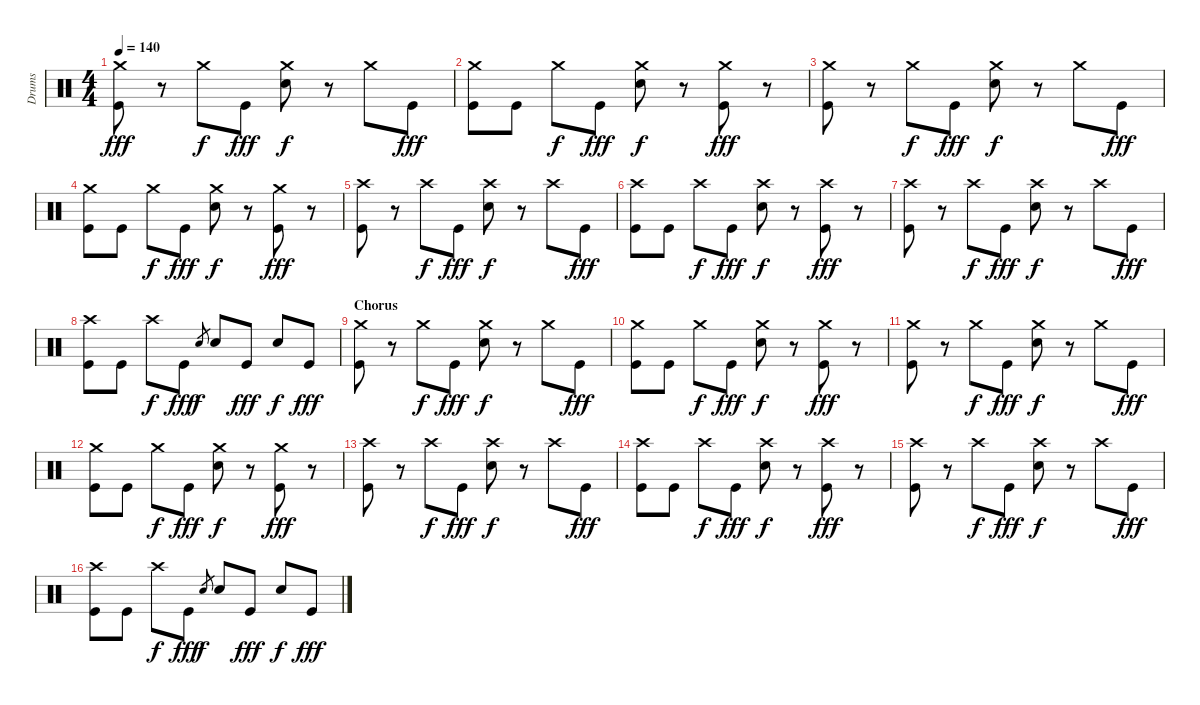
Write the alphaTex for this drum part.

\track ("Drums" "Drums") {instrument percussion}
\staff {score}
\articulation defaults
\ts (4 4)
\tempo 140
\clef neutral
\ks c
("Crash medium (hit)" "Kick (hit)").8{dy fff} r.8 "Crash medium (hit)".8{dy f} "Kick (hit)".8{dy fff} ("Crash medium (hit)" "Electric Snare (hit)").8{dy f} r.8 "Crash medium (hit)".8 "Kick (hit)".8{dy fff} |
("Crash medium (hit)" "Kick (hit)").8 "Kick (hit)".8 "Crash medium (hit)".8{dy f} "Kick (hit)".8{dy fff} ("Crash medium (hit)" "Electric Snare (hit)").8{dy f} r.8 ("Crash medium (hit)" "Kick (hit)").8{dy fff} r.8 |
("Crash medium (hit)" "Kick (hit)").8 r.8 "Crash medium (hit)".8{dy f} "Kick (hit)".8{dy fff} ("Crash medium (hit)" "Electric Snare (hit)").8{dy f} r.8 "Crash medium (hit)".8 "Kick (hit)".8{dy fff} |
("Crash medium (hit)" "Kick (hit)").8 "Kick (hit)".8 "Crash medium (hit)".8{dy f} "Kick (hit)".8{dy fff} ("Crash medium (hit)" "Electric Snare (hit)").8{dy f} r.8 ("Crash medium (hit)" "Kick (hit)").8{dy fff} r.8 |
("Crash high (hit)" "Kick (hit)").8 r.8 "Crash high (hit)".8{dy f} "Kick (hit)".8{dy fff} ("Crash high (hit)" "Electric Snare (hit)").8{dy f} r.8 "Crash high (hit)".8 "Kick (hit)".8{dy fff} |
("Crash high (hit)" "Kick (hit)").8 "Kick (hit)".8 "Crash high (hit)".8{dy f} "Kick (hit)".8{dy fff} ("Crash high (hit)" "Electric Snare (hit)").8{dy f} r.8 ("Crash high (hit)" "Kick (hit)").8{dy fff} r.8 |
("Crash high (hit)" "Kick (hit)").8 r.8 "Crash high (hit)".8{dy f} "Kick (hit)".8{dy fff} ("Crash high (hit)" "Electric Snare (hit)").8{dy f} r.8 "Crash high (hit)".8 "Kick (hit)".8{dy fff} |
("Crash high (hit)" "Kick (hit)").8 "Kick (hit)".8 "Crash high (hit)".8{dy f} "Kick (hit)".8{dy fff} "Electric Snare (hit)".8{gr dy f} "Electric Snare (hit)".8 "Kick (hit)".8{dy fff} "Electric Snare (hit)".8{dy f} "Kick (hit)".8{dy fff} |
\section ("" "Chorus")
("Crash medium (hit)" "Kick (hit)").8 r.8 "Crash medium (hit)".8{dy f} "Kick (hit)".8{dy fff} ("Crash medium (hit)" "Electric Snare (hit)").8{dy f} r.8 "Crash medium (hit)".8 "Kick (hit)".8{dy fff} |
("Crash medium (hit)" "Kick (hit)").8 "Kick (hit)".8 "Crash medium (hit)".8{dy f} "Kick (hit)".8{dy fff} ("Crash medium (hit)" "Electric Snare (hit)").8{dy f} r.8 ("Crash medium (hit)" "Kick (hit)").8{dy fff} r.8 |
("Crash medium (hit)" "Kick (hit)").8 r.8 "Crash medium (hit)".8{dy f} "Kick (hit)".8{dy fff} ("Crash medium (hit)" "Electric Snare (hit)").8{dy f} r.8 "Crash medium (hit)".8 "Kick (hit)".8{dy fff} |
("Crash medium (hit)" "Kick (hit)").8 "Kick (hit)".8 "Crash medium (hit)".8{dy f} "Kick (hit)".8{dy fff} ("Crash medium (hit)" "Electric Snare (hit)").8{dy f} r.8 ("Crash medium (hit)" "Kick (hit)").8{dy fff} r.8 |
("Crash high (hit)" "Kick (hit)").8 r.8 "Crash high (hit)".8{dy f} "Kick (hit)".8{dy fff} ("Crash high (hit)" "Electric Snare (hit)").8{dy f} r.8 "Crash high (hit)".8 "Kick (hit)".8{dy fff} |
("Crash high (hit)" "Kick (hit)").8 "Kick (hit)".8 "Crash high (hit)".8{dy f} "Kick (hit)".8{dy fff} ("Crash high (hit)" "Electric Snare (hit)").8{dy f} r.8 ("Crash high (hit)" "Kick (hit)").8{dy fff} r.8 |
("Crash high (hit)" "Kick (hit)").8 r.8 "Crash high (hit)".8{dy f} "Kick (hit)".8{dy fff} ("Crash high (hit)" "Electric Snare (hit)").8{dy f} r.8 "Crash high (hit)".8 "Kick (hit)".8{dy fff} |
("Crash high (hit)" "Kick (hit)").8 "Kick (hit)".8 "Crash high (hit)".8{dy f} "Kick (hit)".8{dy fff} "Electric Snare (hit)".8{gr dy f} "Electric Snare (hit)".8 "Kick (hit)".8{dy fff} "Electric Snare (hit)".8{dy f} "Kick (hit)".8{dy fff}
